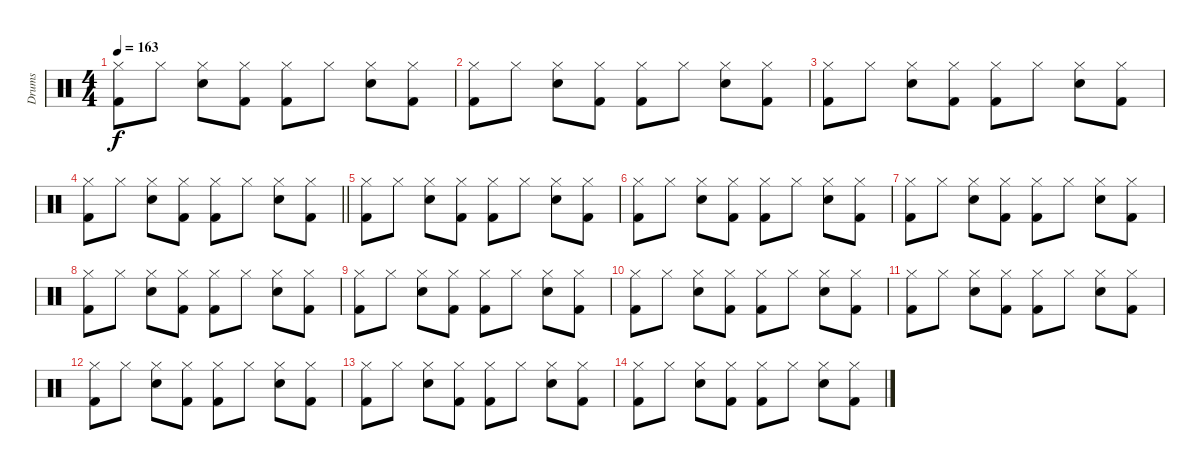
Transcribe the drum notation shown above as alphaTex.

\track ("Drums" "Drums") {instrument percussion}
\staff {score}
\articulation defaults
\ts (4 4)
\tempo 163
\clef neutral
\ks c
("Hi-Hat (closed)" "Kick (hit) 2").8{dy f} "Hi-Hat (closed)".8 ("Hi-Hat (closed)" "Snare (hit) 2").8 ("Hi-Hat (closed)" "Kick (hit) 2").8 ("Hi-Hat (closed)" "Kick (hit) 2").8 "Hi-Hat (closed)".8 ("Hi-Hat (closed)" "Snare (hit) 2").8 ("Hi-Hat (closed)" "Kick (hit) 2").8 |
("Hi-Hat (closed)" "Kick (hit) 2").8 "Hi-Hat (closed)".8 ("Hi-Hat (closed)" "Snare (hit) 2").8 ("Hi-Hat (closed)" "Kick (hit) 2").8 ("Hi-Hat (closed)" "Kick (hit) 2").8 "Hi-Hat (closed)".8 ("Hi-Hat (closed)" "Snare (hit) 2").8 ("Hi-Hat (closed)" "Kick (hit) 2").8 |
("Hi-Hat (closed)" "Kick (hit) 2").8 "Hi-Hat (closed)".8 ("Hi-Hat (closed)" "Snare (hit) 2").8 ("Hi-Hat (closed)" "Kick (hit) 2").8 ("Hi-Hat (closed)" "Kick (hit) 2").8 "Hi-Hat (closed)".8 ("Hi-Hat (closed)" "Snare (hit) 2").8 ("Hi-Hat (closed)" "Kick (hit) 2").8 |
\barLineRight lightlight
("Hi-Hat (closed)" "Kick (hit) 2").8 "Hi-Hat (closed)".8 ("Hi-Hat (closed)" "Snare (hit) 2").8 ("Hi-Hat (closed)" "Kick (hit) 2").8 ("Hi-Hat (closed)" "Kick (hit) 2").8 "Hi-Hat (closed)".8 ("Hi-Hat (closed)" "Snare (hit) 2").8 ("Hi-Hat (closed)" "Kick (hit) 2").8 |
("Hi-Hat (closed)" "Kick (hit) 2").8 "Hi-Hat (closed)".8 ("Hi-Hat (closed)" "Snare (hit) 2").8 ("Hi-Hat (closed)" "Kick (hit) 2").8 ("Hi-Hat (closed)" "Kick (hit) 2").8 "Hi-Hat (closed)".8 ("Hi-Hat (closed)" "Snare (hit) 2").8 ("Hi-Hat (closed)" "Kick (hit) 2").8 |
("Hi-Hat (closed)" "Kick (hit) 2").8 "Hi-Hat (closed)".8 ("Hi-Hat (closed)" "Snare (hit) 2").8 ("Hi-Hat (closed)" "Kick (hit) 2").8 ("Hi-Hat (closed)" "Kick (hit) 2").8 "Hi-Hat (closed)".8 ("Hi-Hat (closed)" "Snare (hit) 2").8 ("Hi-Hat (closed)" "Kick (hit) 2").8 |
("Hi-Hat (closed)" "Kick (hit) 2").8 "Hi-Hat (closed)".8 ("Hi-Hat (closed)" "Snare (hit) 2").8 ("Hi-Hat (closed)" "Kick (hit) 2").8 ("Hi-Hat (closed)" "Kick (hit) 2").8 "Hi-Hat (closed)".8 ("Hi-Hat (closed)" "Snare (hit) 2").8 ("Hi-Hat (closed)" "Kick (hit) 2").8 |
("Hi-Hat (closed)" "Kick (hit) 2").8 "Hi-Hat (closed)".8 ("Hi-Hat (closed)" "Snare (hit) 2").8 ("Hi-Hat (closed)" "Kick (hit) 2").8 ("Hi-Hat (closed)" "Kick (hit) 2").8 "Hi-Hat (closed)".8 ("Hi-Hat (closed)" "Snare (hit) 2").8 ("Hi-Hat (closed)" "Kick (hit) 2").8 |
("Hi-Hat (closed)" "Kick (hit) 2").8 "Hi-Hat (closed)".8 ("Hi-Hat (closed)" "Snare (hit) 2").8 ("Hi-Hat (closed)" "Kick (hit) 2").8 ("Hi-Hat (closed)" "Kick (hit) 2").8 "Hi-Hat (closed)".8 ("Hi-Hat (closed)" "Snare (hit) 2").8 ("Hi-Hat (closed)" "Kick (hit) 2").8 |
("Hi-Hat (closed)" "Kick (hit) 2").8 "Hi-Hat (closed)".8 ("Hi-Hat (closed)" "Snare (hit) 2").8 ("Hi-Hat (closed)" "Kick (hit) 2").8 ("Hi-Hat (closed)" "Kick (hit) 2").8 "Hi-Hat (closed)".8 ("Hi-Hat (closed)" "Snare (hit) 2").8 ("Hi-Hat (closed)" "Kick (hit) 2").8 |
("Hi-Hat (closed)" "Kick (hit) 2").8 "Hi-Hat (closed)".8 ("Hi-Hat (closed)" "Snare (hit) 2").8 ("Hi-Hat (closed)" "Kick (hit) 2").8 ("Hi-Hat (closed)" "Kick (hit) 2").8 "Hi-Hat (closed)".8 ("Hi-Hat (closed)" "Snare (hit) 2").8 ("Hi-Hat (closed)" "Kick (hit) 2").8 |
("Hi-Hat (closed)" "Kick (hit) 2").8 "Hi-Hat (closed)".8 ("Hi-Hat (closed)" "Snare (hit) 2").8 ("Hi-Hat (closed)" "Kick (hit) 2").8 ("Hi-Hat (closed)" "Kick (hit) 2").8 "Hi-Hat (closed)".8 ("Hi-Hat (closed)" "Snare (hit) 2").8 ("Hi-Hat (closed)" "Kick (hit) 2").8 |
("Hi-Hat (closed)" "Kick (hit) 2").8 "Hi-Hat (closed)".8 ("Hi-Hat (closed)" "Snare (hit) 2").8 ("Hi-Hat (closed)" "Kick (hit) 2").8 ("Hi-Hat (closed)" "Kick (hit) 2").8 "Hi-Hat (closed)".8 ("Hi-Hat (closed)" "Snare (hit) 2").8 ("Hi-Hat (closed)" "Kick (hit) 2").8 |
("Hi-Hat (closed)" "Kick (hit) 2").8 "Hi-Hat (closed)".8 ("Hi-Hat (closed)" "Snare (hit) 2").8 ("Hi-Hat (closed)" "Kick (hit) 2").8 ("Hi-Hat (closed)" "Kick (hit) 2").8 "Hi-Hat (closed)".8 ("Hi-Hat (closed)" "Snare (hit) 2").8 ("Hi-Hat (closed)" "Kick (hit) 2").8
